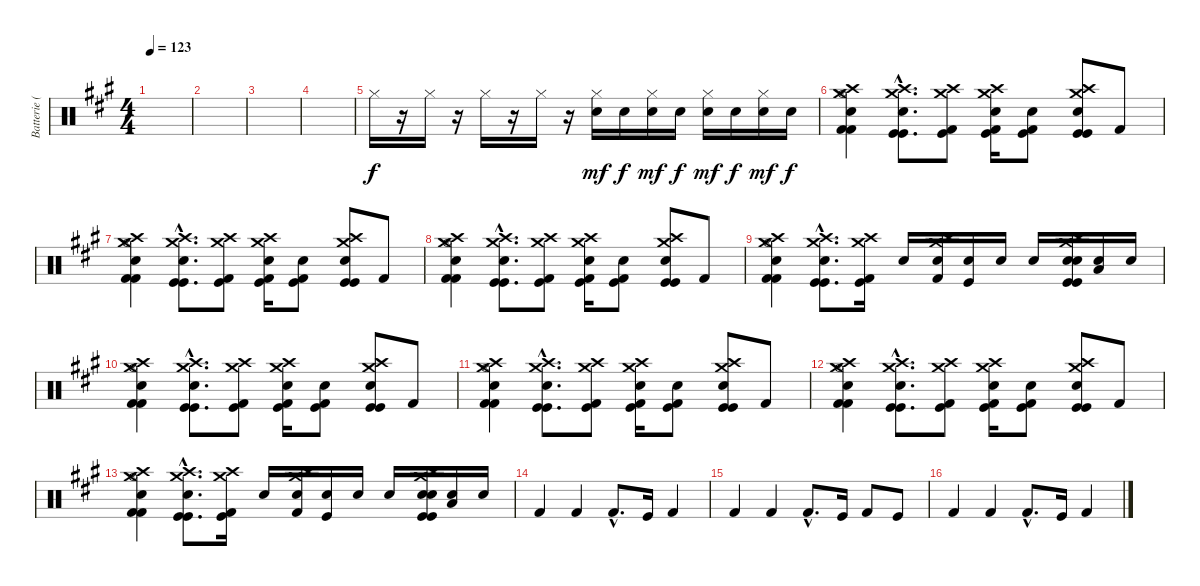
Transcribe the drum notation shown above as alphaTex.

\track ("Batterie (Dominic Howard)" "Batterie (") {instrument percussion}
\staff {score}
\articulation defaults
\ts (4 4)
\tempo 123
\clef neutral
\ks a
|
|
|
|
"Hi-Hat (closed)".16 r.16 "Hi-Hat (closed)".16 r.16 "Hi-Hat (closed)".16 r.16 "Hi-Hat (closed)".16 r.16 ("Electric Snare (hit)" "Hi-Hat (closed)").16{dy mf} "Electric Snare (hit)".16{dy f} ("Electric Snare (hit)" "Hi-Hat (closed)").16{dy mf} "Electric Snare (hit)".16{dy f} ("Electric Snare (hit)" "Hi-Hat (closed)").16{dy mf} "Electric Snare (hit)".16{dy f} ("Electric Snare (hit)" "Hi-Hat (closed)").16{dy mf} "Electric Snare (hit)".16{dy f} |
("Crash medium (hit)" "Crash high (hit)" "Hi-Hat (open)" "Snare (hit) 2" "Kick (hit) 2" "Kick (hit) 2").4 ("Crash medium (hit)"{hac} "Crash high (hit)"{hac} "Electric Snare (hit)"{hac} "Kick (hit)"{hac} "Kick (hit)"{hac}).8{d} ("Crash medium (hit)" "Crash high (hit)" "Kick (hit)" "Kick (hit) 2").8 ("Crash medium (hit)" "Crash high (hit)" "Snare (hit) 2" "Kick (hit)" "Kick (hit) 2").16 ("Snare (hit) 2" "Kick (hit) 2" "Kick (hit)").8 ("Crash medium (hit)" "Crash high (hit)" "Electric Snare (hit)" "Kick (hit)" "Kick (hit)").8 "Kick (hit) 2".8 |
("Crash medium (hit)" "Crash high (hit)" "Hi-Hat (open)" "Snare (hit) 2" "Kick (hit) 2" "Kick (hit) 2").4 ("Crash medium (hit)"{hac} "Crash high (hit)"{hac} "Electric Snare (hit)"{hac} "Kick (hit)"{hac} "Kick (hit)"{hac}).8{d} ("Crash medium (hit)" "Crash high (hit)" "Kick (hit)" "Kick (hit) 2").8 ("Crash medium (hit)" "Crash high (hit)" "Snare (hit) 2" "Kick (hit)" "Kick (hit) 2").16 ("Snare (hit) 2" "Kick (hit) 2" "Kick (hit)").8 ("Crash medium (hit)" "Crash high (hit)" "Electric Snare (hit)" "Kick (hit)" "Kick (hit)").8 "Kick (hit) 2".8 |
("Crash medium (hit)" "Crash high (hit)" "Hi-Hat (open)" "Snare (hit) 2" "Kick (hit) 2" "Kick (hit) 2").4 ("Crash medium (hit)"{hac} "Crash high (hit)"{hac} "Electric Snare (hit)"{hac} "Kick (hit)"{hac} "Kick (hit)"{hac}).8{d} ("Crash medium (hit)" "Crash high (hit)" "Kick (hit)" "Kick (hit) 2").8 ("Crash medium (hit)" "Crash high (hit)" "Snare (hit) 2" "Kick (hit)" "Kick (hit) 2").16 ("Snare (hit) 2" "Kick (hit) 2" "Kick (hit)").8 ("Crash medium (hit)" "Crash high (hit)" "Electric Snare (hit)" "Kick (hit)" "Kick (hit)").8 "Kick (hit) 2".8 |
("Crash medium (hit)" "Crash high (hit)" "Hi-Hat (open)" "Snare (hit) 2" "Kick (hit) 2" "Kick (hit) 2").4 ("Crash medium (hit)"{hac} "Crash high (hit)"{hac} "Electric Snare (hit)"{hac} "Kick (hit)"{hac} "Kick (hit)"{hac}).8{d} ("Crash medium (hit)" "Crash high (hit)" "Kick (hit)" "Kick (hit) 2").16 "Electric Snare (hit)".16 ("Crash medium (hit)" "Crash high (hit)" "Electric Snare (hit)" "Kick (hit) 2").16 ("Electric Snare (hit)" "Kick (hit)").16 "Electric Snare (hit)".16 "Electric Snare (hit)".16 ("Crash medium (hit)" "Crash high (hit)" "Electric Snare (hit)" "Electric Snare (hit)" "Kick (hit)" "Kick (hit)").16 ("Electric Snare (hit)" "Low Floor Tom (hit)").16 "Electric Snare (hit)".16 |
("Crash medium (hit)" "Crash high (hit)" "Hi-Hat (open)" "Snare (hit) 2" "Kick (hit) 2" "Kick (hit) 2").4 ("Crash medium (hit)"{hac} "Crash high (hit)"{hac} "Electric Snare (hit)"{hac} "Kick (hit)"{hac} "Kick (hit)"{hac}).8{d} ("Crash medium (hit)" "Crash high (hit)" "Kick (hit)" "Kick (hit) 2").8 ("Crash medium (hit)" "Crash high (hit)" "Snare (hit) 2" "Kick (hit)" "Kick (hit) 2").16 ("Snare (hit) 2" "Kick (hit) 2" "Kick (hit)").8 ("Crash medium (hit)" "Crash high (hit)" "Electric Snare (hit)" "Kick (hit)" "Kick (hit)").8 "Kick (hit) 2".8 |
("Crash medium (hit)" "Crash high (hit)" "Hi-Hat (open)" "Snare (hit) 2" "Kick (hit) 2" "Kick (hit) 2").4 ("Crash medium (hit)"{hac} "Crash high (hit)"{hac} "Electric Snare (hit)"{hac} "Kick (hit)"{hac} "Kick (hit)"{hac}).8{d} ("Crash medium (hit)" "Crash high (hit)" "Kick (hit)" "Kick (hit) 2").8 ("Crash medium (hit)" "Crash high (hit)" "Snare (hit) 2" "Kick (hit)" "Kick (hit) 2").16 ("Snare (hit) 2" "Kick (hit) 2" "Kick (hit)").8 ("Crash medium (hit)" "Crash high (hit)" "Electric Snare (hit)" "Kick (hit)" "Kick (hit)").8 "Kick (hit) 2".8 |
("Crash medium (hit)" "Crash high (hit)" "Hi-Hat (open)" "Snare (hit) 2" "Kick (hit) 2" "Kick (hit) 2").4 ("Crash medium (hit)"{hac} "Crash high (hit)"{hac} "Electric Snare (hit)"{hac} "Kick (hit)"{hac} "Kick (hit)"{hac}).8{d} ("Crash medium (hit)" "Crash high (hit)" "Kick (hit)" "Kick (hit) 2").8 ("Crash medium (hit)" "Crash high (hit)" "Snare (hit) 2" "Kick (hit)" "Kick (hit) 2").16 ("Snare (hit) 2" "Kick (hit) 2" "Kick (hit)").8 ("Crash medium (hit)" "Crash high (hit)" "Electric Snare (hit)" "Kick (hit)" "Kick (hit)").8 "Kick (hit) 2".8 |
("Crash medium (hit)" "Crash high (hit)" "Hi-Hat (open)" "Snare (hit) 2" "Kick (hit) 2" "Kick (hit) 2").4 ("Crash medium (hit)"{hac} "Crash high (hit)"{hac} "Electric Snare (hit)"{hac} "Kick (hit)"{hac} "Kick (hit)"{hac}).8{d} ("Crash medium (hit)" "Crash high (hit)" "Kick (hit)" "Kick (hit) 2").16 "Electric Snare (hit)".16 ("Crash medium (hit)" "Crash high (hit)" "Electric Snare (hit)" "Kick (hit) 2").16 ("Electric Snare (hit)" "Kick (hit)").16 "Electric Snare (hit)".16 "Electric Snare (hit)".16 ("Crash medium (hit)" "Crash high (hit)" "Electric Snare (hit)" "Electric Snare (hit)" "Kick (hit)" "Kick (hit)").16 ("Electric Snare (hit)" "Low Floor Tom (hit)").16 "Electric Snare (hit)".16 |
"Kick (hit) 2".4 "Kick (hit) 2".4 "Kick (hit) 2"{hac}.8{d} "Kick (hit)".16 "Kick (hit) 2".4 |
"Kick (hit) 2".4 "Kick (hit) 2".4 "Kick (hit) 2"{hac}.8{d} "Kick (hit)".16 "Kick (hit) 2".8 "Kick (hit)".8 |
"Kick (hit) 2".4 "Kick (hit) 2".4 "Kick (hit) 2"{hac}.8{d} "Kick (hit)".16 "Kick (hit) 2".4
